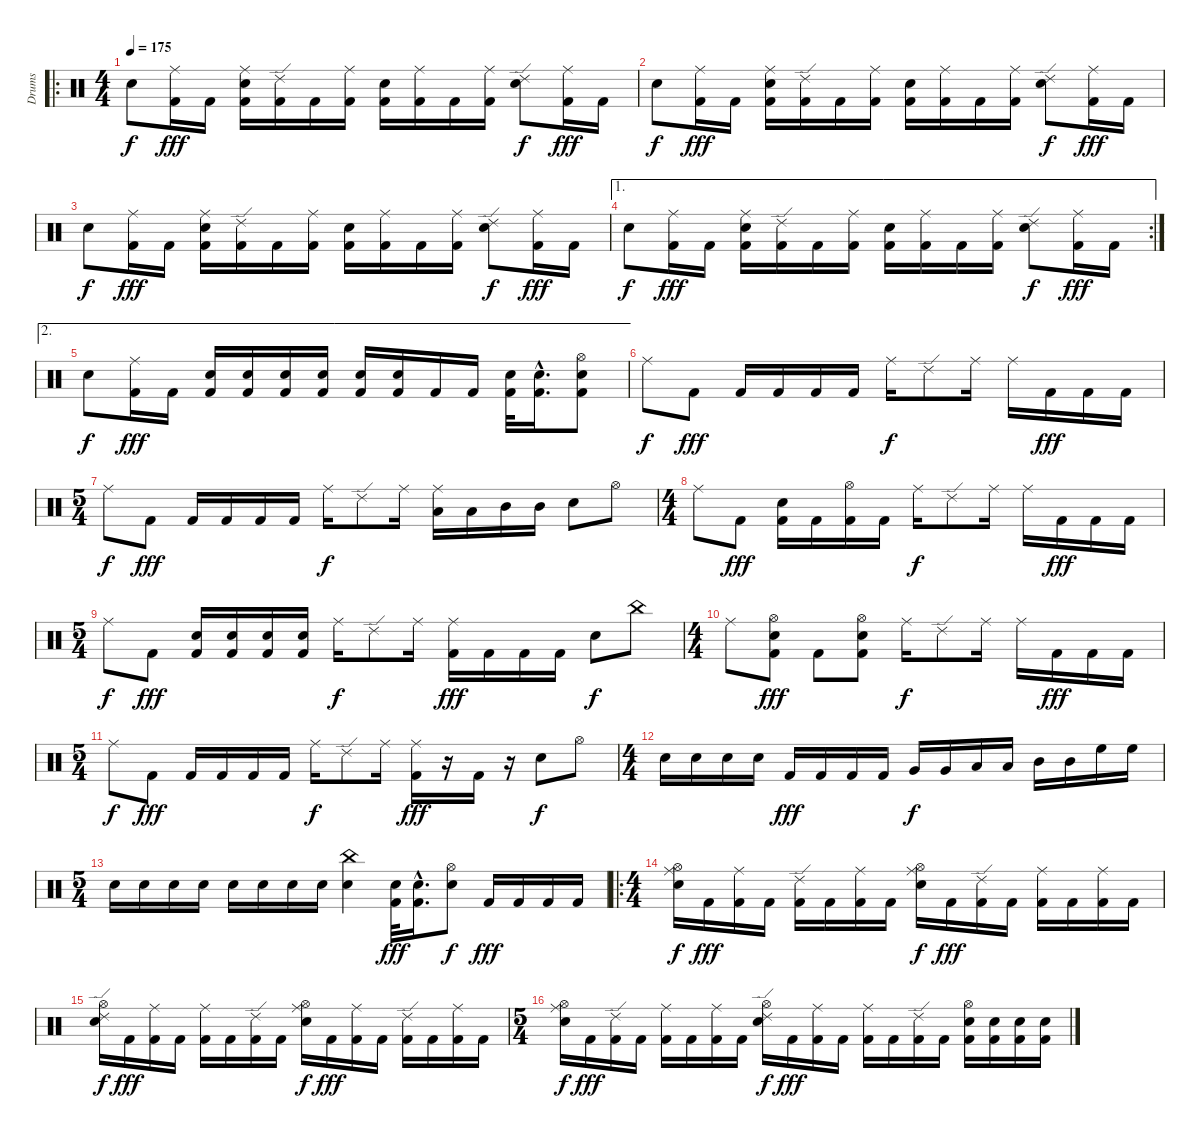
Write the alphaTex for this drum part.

\track ("Drums" "Drums") {instrument percussion}
\staff {score}
\articulation defaults
\ro
\ts (4 4)
\tempo 175
\clef neutral
\ks c "Electric Snare (hit)".8{dy f}
("Ride (middle)" "Kick (hit) 2").16{dy fff} "Kick (hit) 2".16 ("Ride (middle)" "Electric Snare (hit)" "Kick (hit) 2").16 ("Ride (edge) 2" "Kick (hit) 2").16 "Kick (hit) 2".16 ("Ride (middle)" "Kick (hit) 2").16 ("Electric Snare (hit)" "Kick (hit) 2").16 ("Ride (middle)" "Kick (hit) 2").16 "Kick (hit) 2".16 ("Ride (middle)" "Kick (hit) 2").16 ("Ride (edge) 2" "Electric Snare (hit)").8{dy f} ("Ride (middle)" "Kick (hit) 2").16{dy fff} "Kick (hit) 2".16 |
"Electric Snare (hit)".8{dy f} ("Ride (middle)" "Kick (hit) 2").16{dy fff} "Kick (hit) 2".16 ("Ride (middle)" "Electric Snare (hit)" "Kick (hit) 2").16 ("Ride (edge) 2" "Kick (hit) 2").16 "Kick (hit) 2".16 ("Ride (middle)" "Kick (hit) 2").16 ("Electric Snare (hit)" "Kick (hit) 2").16 ("Ride (middle)" "Kick (hit) 2").16 "Kick (hit) 2".16 ("Ride (middle)" "Kick (hit) 2").16 ("Ride (edge) 2" "Electric Snare (hit)").8{dy f} ("Ride (middle)" "Kick (hit) 2").16{dy fff} "Kick (hit) 2".16 |
"Electric Snare (hit)".8{dy f} ("Ride (middle)" "Kick (hit) 2").16{dy fff} "Kick (hit) 2".16 ("Ride (middle)" "Electric Snare (hit)" "Kick (hit) 2").16 ("Ride (edge) 2" "Kick (hit) 2").16 "Kick (hit) 2".16 ("Ride (middle)" "Kick (hit) 2").16 ("Electric Snare (hit)" "Kick (hit) 2").16 ("Ride (middle)" "Kick (hit) 2").16 "Kick (hit) 2".16 ("Ride (middle)" "Kick (hit) 2").16 ("Ride (edge) 2" "Electric Snare (hit)").8{dy f} ("Ride (middle)" "Kick (hit) 2").16{dy fff} "Kick (hit) 2".16 |
\ae 1
\rc 2 "Electric Snare (hit)".8{dy f}
("Ride (middle)" "Kick (hit) 2").16{dy fff} "Kick (hit) 2".16 ("Ride (middle)" "Electric Snare (hit)" "Kick (hit) 2").16 ("Ride (edge) 2" "Kick (hit) 2").16 "Kick (hit) 2".16 ("Ride (middle)" "Kick (hit) 2").16 ("Electric Snare (hit)" "Kick (hit) 2").16 ("Ride (middle)" "Kick (hit) 2").16 "Kick (hit) 2".16 ("Ride (middle)" "Kick (hit) 2").16 ("Ride (edge) 2" "Electric Snare (hit)").8{dy f} ("Ride (middle)" "Kick (hit) 2").16{dy fff} "Kick (hit) 2".16 |
\ae 2 "Electric Snare (hit)".8{dy f}
("Ride (middle)" "Kick (hit) 2").16{dy fff} "Kick (hit) 2".16 ("Electric Snare (hit)" "Kick (hit) 2").16 ("Electric Snare (hit)" "Kick (hit) 2").16 ("Electric Snare (hit)" "Kick (hit) 2").16 ("Electric Snare (hit)" "Kick (hit) 2").16 ("Electric Snare (hit)" "Kick (hit) 2").16 ("Electric Snare (hit)" "Kick (hit) 2").16 "Kick (hit) 2".16 "Kick (hit) 2".16 ("Electric Snare (hit)" "Kick (hit) 2").32 ("Electric Snare (hit)"{hac} "Kick (hit) 2"{hac}).16{d} ("Hi-Hat (open)" "Electric Snare (hit)" "Kick (hit) 2").8 |
"Ride (middle)".8{dy f} "Kick (hit) 2".8{dy fff} "Kick (hit) 2".16 "Kick (hit) 2".16 "Kick (hit) 2".16 "Kick (hit) 2".16 "Ride (middle)".16{dy f} "Ride (edge) 2".8 "Ride (middle)".16 "Ride (middle)".16 "Kick (hit) 2".16{dy fff} "Kick (hit) 2".16 "Kick (hit) 2".16 |
\ts (5 4)
"Ride (middle)".8{dy f} "Kick (hit) 2".8{dy fff} "Kick (hit) 2".16 "Kick (hit) 2".16 "Kick (hit) 2".16 "Kick (hit) 2".16 "Ride (middle)".16{dy f} "Ride (edge) 2".8 "Ride (middle)".16 ("Ride (middle)" "Low Tom (hit)").16 "Low Tom (hit)".16 "Mid Tom (hit)".16 "Mid Tom (hit)".16 "Electric Snare (hit)".8 "Hi-Hat (open)".8 |
\ts (4 4)
"Ride (middle)".8 "Kick (hit) 2".8{dy fff} ("Electric Snare (hit)" "Kick (hit) 2").16 "Kick (hit) 2".16 ("Hi-Hat (open)" "Kick (hit) 2").16 "Kick (hit) 2".16 "Ride (middle)".16{dy f} "Ride (edge) 2".8 "Ride (middle)".16 "Ride (middle)".16 "Kick (hit) 2".16{dy fff} "Kick (hit) 2".16 "Kick (hit) 2".16 |
\ts (5 4)
"Ride (middle)".8{dy f} "Kick (hit) 2".8{dy fff} ("Electric Snare (hit)" "Kick (hit) 2").16 ("Electric Snare (hit)" "Kick (hit) 2").16 ("Electric Snare (hit)" "Kick (hit) 2").16 ("Electric Snare (hit)" "Kick (hit) 2").16 "Ride (middle)".16{dy f} "Ride (edge) 2".8 "Ride (middle)".16 ("Ride (middle)" "Kick (hit) 2").16{dy fff} "Kick (hit) 2".16 "Kick (hit) 2".16 "Kick (hit) 2".16 "Electric Snare (hit)".8{dy f} "China (hit)".8 |
\ts (4 4)
"Ride (middle)".8 ("Hi-Hat (open)" "Electric Snare (hit)" "Kick (hit) 2").8{dy fff} "Kick (hit) 2".8 ("Hi-Hat (open)" "Electric Snare (hit)" "Kick (hit) 2").8 "Ride (middle)".16{dy f} "Ride (edge) 2".8 "Ride (middle)".16 "Ride (middle)".16 "Kick (hit) 2".16{dy fff} "Kick (hit) 2".16 "Kick (hit) 2".16 |
\ts (5 4)
"Ride (middle)".8{dy f} "Kick (hit) 2".8{dy fff} "Kick (hit) 2".16 "Kick (hit) 2".16 "Kick (hit) 2".16 "Kick (hit) 2".16 "Ride (middle)".16{dy f} "Ride (edge) 2".8 "Ride (middle)".16 ("Ride (middle)" "Kick (hit) 2").16{dy fff} r.16 "Kick (hit) 2".16 r.16 "Electric Snare (hit)".8{dy f} "Hi-Hat (open)".8 |
\ts (4 4)
"Electric Snare (hit)".16 "Electric Snare (hit)".16 "Electric Snare (hit)".16 "Electric Snare (hit)".16 "Kick (hit) 2".16{dy fff} "Kick (hit) 2".16 "Kick (hit) 2".16 "Kick (hit) 2".16 "Very Low Tom (hit)".16{dy f} "Very Low Tom (hit)".16 "Low Tom (hit)".16 "Low Tom (hit)".16 "Mid Tom (hit)".16 "Mid Tom (hit)".16 "High Floor Tom (hit)".16 "High Floor Tom (hit)".16 |
\ts (5 4)
"Electric Snare (hit)".16 "Electric Snare (hit)".16 "Electric Snare (hit)".16 "Electric Snare (hit)".16 "Electric Snare (hit)".16 "Electric Snare (hit)".16 "Electric Snare (hit)".16 "Electric Snare (hit)".16 ("China (hit)" "Electric Snare (hit)").4 ("Electric Snare (hit)" "Kick (hit) 2").32{dy fff} ("Electric Snare (hit)"{hac} "Kick (hit) 2"{hac}).16{d} ("Hi-Hat (open)" "Electric Snare (hit)").8{dy f} "Kick (hit) 2".16{dy fff} "Kick (hit) 2".16 "Kick (hit) 2".16 "Kick (hit) 2".16 |
\ro
\ts (4 4)
("Ride (middle)" "Hi-Hat (open)" "Electric Snare (hit)").16{dy f} "Kick (hit) 2".16{dy fff} ("Ride (middle)" "Kick (hit) 2").16 "Kick (hit) 2".16 ("Ride (edge) 2" "Kick (hit) 2").16 "Kick (hit) 2".16 ("Ride (middle)" "Kick (hit) 2").16 "Kick (hit) 2".16 ("Ride (middle)" "Hi-Hat (open)" "Electric Snare (hit)").16{dy f} "Kick (hit) 2".16{dy fff} ("Ride (edge) 2" "Kick (hit) 2").16 "Kick (hit) 2".16 ("Ride (middle)" "Kick (hit) 2").16 "Kick (hit) 2".16 ("Ride (middle)" "Kick (hit) 2").16 "Kick (hit) 2".16 |
("Ride (edge) 2" "Hi-Hat (open)" "Electric Snare (hit)").16{dy f} "Kick (hit) 2".16{dy fff} ("Ride (middle)" "Kick (hit) 2").16 "Kick (hit) 2".16 ("Ride (middle)" "Kick (hit) 2").16 "Kick (hit) 2".16 ("Ride (edge) 2" "Kick (hit) 2").16 "Kick (hit) 2".16 ("Ride (middle)" "Hi-Hat (open)" "Electric Snare (hit)").16{dy f} "Kick (hit) 2".16{dy fff} ("Ride (middle)" "Kick (hit) 2").16 "Kick (hit) 2".16 ("Ride (edge) 2" "Kick (hit) 2").16 "Kick (hit) 2".16 ("Ride (middle)" "Kick (hit) 2").16 "Kick (hit) 2".16 |
\ts (5 4)
("Ride (middle)" "Hi-Hat (open)" "Electric Snare (hit)").16{dy f} "Kick (hit) 2".16{dy fff} ("Ride (edge) 2" "Kick (hit) 2").16 "Kick (hit) 2".16 ("Ride (middle)" "Kick (hit) 2").16 "Kick (hit) 2".16 ("Ride (middle)" "Kick (hit) 2").16 "Kick (hit) 2".16 ("Ride (edge) 2" "Hi-Hat (open)" "Electric Snare (hit)").16{dy f} "Kick (hit) 2".16{dy fff} ("Ride (middle)" "Kick (hit) 2").16 "Kick (hit) 2".16 ("Ride (middle)" "Kick (hit) 2").16 "Kick (hit) 2".16 ("Ride (edge) 2" "Kick (hit) 2").16 "Kick (hit) 2".16 ("Hi-Hat (open)" "Electric Snare (hit)" "Kick (hit) 2").16 ("Electric Snare (hit)" "Kick (hit) 2").16 ("Electric Snare (hit)" "Kick (hit) 2").16 ("Electric Snare (hit)" "Kick (hit) 2").16
